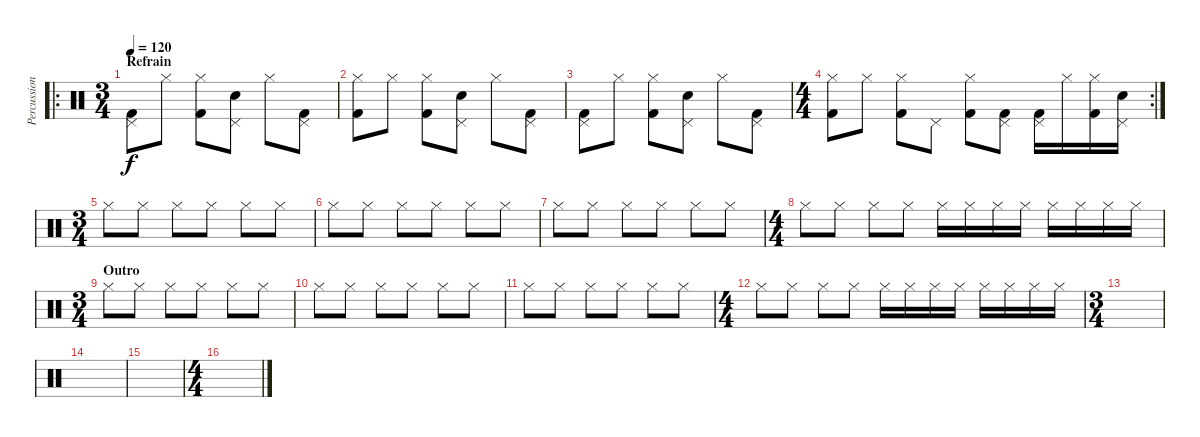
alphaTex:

\track ("Percussions" "Percussion") {instrument percussion}
\staff {score}
\articulation defaults
\ro
\ts (3 4)
\section ("" "Refrain")
\tempo 120
\clef neutral
\ks c
("Kick (hit) 2" "Pedal Hi-Hat (hit)").8{dy f} "Hi-Hat (closed)".8 ("Kick (hit) 2" "Hi-Hat (closed)").8 ("Snare (hit) 2" "Pedal Hi-Hat (hit)").8 "Hi-Hat (closed)".8 ("Kick (hit) 2" "Pedal Hi-Hat (hit)").8 |
("Kick (hit) 2" "Hi-Hat (closed)").8 "Hi-Hat (closed)".8 ("Kick (hit) 2" "Hi-Hat (closed)").8 ("Snare (hit) 2" "Pedal Hi-Hat (hit)").8 "Hi-Hat (closed)".8 ("Kick (hit) 2" "Pedal Hi-Hat (hit)").8 |
("Kick (hit) 2" "Pedal Hi-Hat (hit)").8 "Hi-Hat (closed)".8 ("Kick (hit) 2" "Hi-Hat (closed)").8 ("Snare (hit) 2" "Pedal Hi-Hat (hit)").8 "Hi-Hat (closed)".8 ("Kick (hit) 2" "Pedal Hi-Hat (hit)").8 |
\rc 2
\ts (4 4)
("Kick (hit) 2" "Hi-Hat (closed)").8 "Hi-Hat (closed)".8 ("Kick (hit) 2" "Hi-Hat (closed)").8 "Pedal Hi-Hat (hit)".8 ("Kick (hit) 2" "Hi-Hat (closed)").8 ("Kick (hit) 2" "Pedal Hi-Hat (hit)").8 ("Kick (hit) 2" "Pedal Hi-Hat (hit)").16 "Hi-Hat (closed)".16 ("Kick (hit) 2" "Hi-Hat (closed)").16 ("Snare (hit) 2" "Pedal Hi-Hat (hit)").16 |
\ts (3 4)
"Hi-Hat (closed)".8 "Hi-Hat (closed)".8 "Hi-Hat (closed)".8 "Hi-Hat (closed)".8 "Hi-Hat (closed)".8 "Hi-Hat (closed)".8 |
"Hi-Hat (closed)".8 "Hi-Hat (closed)".8 "Hi-Hat (closed)".8 "Hi-Hat (closed)".8 "Hi-Hat (closed)".8 "Hi-Hat (closed)".8 |
"Hi-Hat (closed)".8 "Hi-Hat (closed)".8 "Hi-Hat (closed)".8 "Hi-Hat (closed)".8 "Hi-Hat (closed)".8 "Hi-Hat (closed)".8 |
\ts (4 4)
"Hi-Hat (closed)".8 "Hi-Hat (closed)".8 "Hi-Hat (closed)".8 "Hi-Hat (closed)".8 "Hi-Hat (closed)".16 "Hi-Hat (closed)".16 "Hi-Hat (closed)".16 "Hi-Hat (closed)".16 "Hi-Hat (closed)".16 "Hi-Hat (closed)".16 "Hi-Hat (closed)".16 "Hi-Hat (closed)".16 |
\ts (3 4)
\section ("" "Outro")
"Hi-Hat (closed)".8 "Hi-Hat (closed)".8 "Hi-Hat (closed)".8 "Hi-Hat (closed)".8 "Hi-Hat (closed)".8 "Hi-Hat (closed)".8 |
"Hi-Hat (closed)".8 "Hi-Hat (closed)".8 "Hi-Hat (closed)".8 "Hi-Hat (closed)".8 "Hi-Hat (closed)".8 "Hi-Hat (closed)".8 |
"Hi-Hat (closed)".8 "Hi-Hat (closed)".8 "Hi-Hat (closed)".8 "Hi-Hat (closed)".8 "Hi-Hat (closed)".8 "Hi-Hat (closed)".8 |
\ts (4 4)
"Hi-Hat (closed)".8 "Hi-Hat (closed)".8 "Hi-Hat (closed)".8 "Hi-Hat (closed)".8 "Hi-Hat (closed)".16 "Hi-Hat (closed)".16 "Hi-Hat (closed)".16 "Hi-Hat (closed)".16 "Hi-Hat (closed)".16 "Hi-Hat (closed)".16 "Hi-Hat (closed)".16 "Hi-Hat (closed)".16 |
\ts (3 4)
|
|
|
\ts (4 4)
